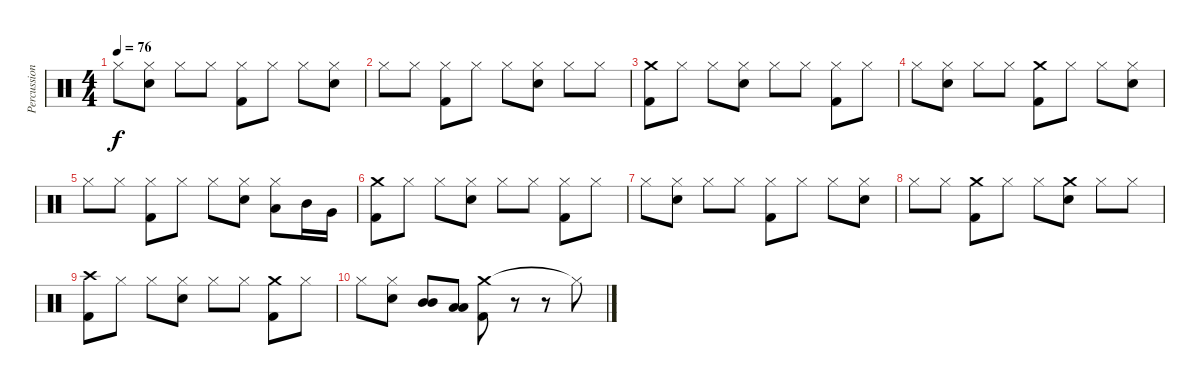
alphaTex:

\track ("Percussions" "Percussion") {instrument percussion}
\staff {score}
\articulation defaults
\ts (4 4)
\tempo 76
\clef neutral
\ks c "Hi-Hat (closed)".8{dy f}
("Hi-Hat (closed)" "Electric Snare (hit)").8 "Hi-Hat (closed)".8 "Hi-Hat (closed)".8 ("Hi-Hat (closed)" "Kick (hit) 2").8 "Hi-Hat (closed)".8 "Hi-Hat (closed)".8 ("Hi-Hat (closed)" "Electric Snare (hit)").8 |
"Hi-Hat (closed)".8 "Hi-Hat (closed)".8 ("Hi-Hat (closed)" "Kick (hit) 2").8 "Hi-Hat (closed)".8 "Hi-Hat (closed)".8 ("Hi-Hat (closed)" "Electric Snare (hit)").8 "Hi-Hat (closed)".8 "Hi-Hat (closed)".8 |
("Crash medium (hit)" "Kick (hit) 2").8 "Hi-Hat (closed)".8 "Hi-Hat (closed)".8 ("Hi-Hat (closed)" "Electric Snare (hit)").8 "Hi-Hat (closed)".8 "Hi-Hat (closed)".8 ("Hi-Hat (closed)" "Kick (hit) 2").8 "Hi-Hat (closed)".8 |
"Hi-Hat (closed)".8 ("Hi-Hat (closed)" "Electric Snare (hit)").8 "Hi-Hat (closed)".8 "Hi-Hat (closed)".8 ("Crash medium (hit)" "Kick (hit) 2").8 "Hi-Hat (closed)".8 "Hi-Hat (closed)".8 ("Hi-Hat (closed)" "Electric Snare (hit)").8 |
"Hi-Hat (closed)".8 "Hi-Hat (closed)".8 ("Hi-Hat (closed)" "Kick (hit) 2").8 "Hi-Hat (closed)".8 "Hi-Hat (closed)".8 ("Hi-Hat (closed)" "Electric Snare (hit)").8 ("Hi-Hat (closed)" "Low Tom (hit)").8 "Mid Tom (hit)".16 "Very Low Tom (hit)".16 |
("Crash medium (hit)" "Kick (hit) 2").8 "Hi-Hat (closed)".8 "Hi-Hat (closed)".8 ("Hi-Hat (closed)" "Electric Snare (hit)").8 "Hi-Hat (closed)".8 "Hi-Hat (closed)".8 ("Hi-Hat (closed)" "Kick (hit) 2").8 "Hi-Hat (closed)".8 |
"Hi-Hat (closed)".8 ("Hi-Hat (closed)" "Electric Snare (hit)").8 "Hi-Hat (closed)".8 "Hi-Hat (closed)".8 ("Hi-Hat (closed)" "Kick (hit) 2").8 "Hi-Hat (closed)".8 "Hi-Hat (closed)".8 ("Hi-Hat (closed)" "Electric Snare (hit)").8 |
"Hi-Hat (closed)".8 "Hi-Hat (closed)".8 ("Crash medium (hit)" "Kick (hit) 2").8 "Hi-Hat (closed)".8 "Hi-Hat (closed)".8 ("Crash medium (hit)" "Electric Snare (hit)").8 "Hi-Hat (closed)".8 "Hi-Hat (closed)".8 |
("Crash high (hit)" "Kick (hit) 2").8 "Hi-Hat (closed)".8 "Hi-Hat (closed)".8 ("Hi-Hat (closed)" "Electric Snare (hit)").8 "Hi-Hat (closed)".8 "Hi-Hat (closed)".8 ("Crash medium (hit)" "Kick (hit) 2").8 "Hi-Hat (closed)".8 |
"Hi-Hat (closed)".8 ("Hi-Hat (closed)" "Electric Snare (hit)").8 ("Mid Tom (hit)" "Mid Tom (hit)").8 ("Low Tom (hit)" "Low Tom (hit)").8 ("Crash medium (hit)" "Kick (hit) 2").8 r.8 r.8 "Hi-Hat (closed)"{t}.8
